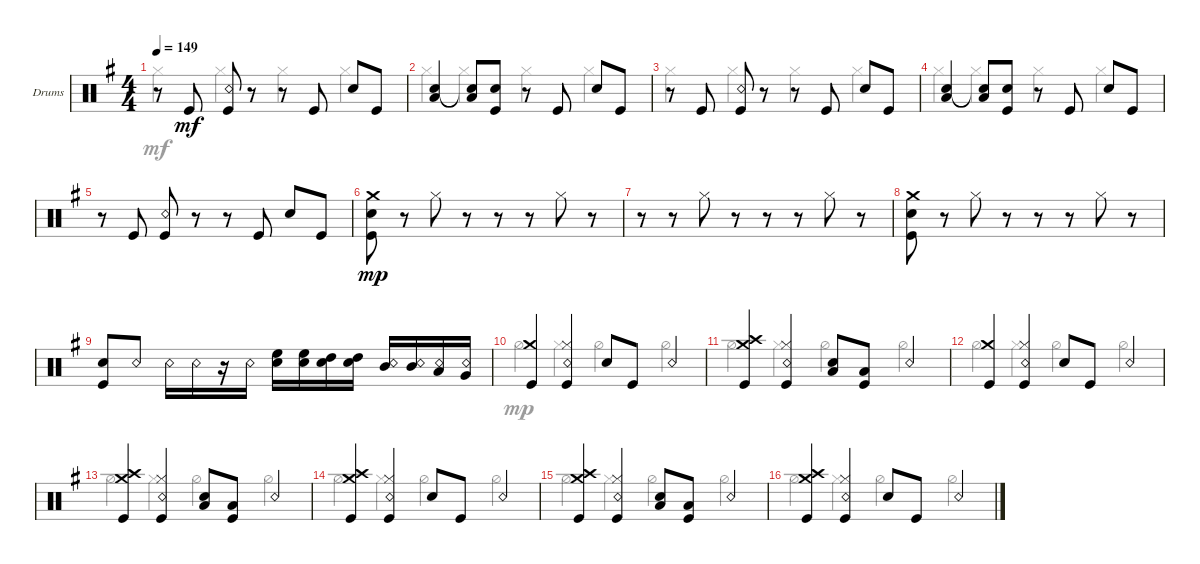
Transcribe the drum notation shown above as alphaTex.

\defaultSystemsLayout 4
\bracketExtendMode groupsimilarinstruments
\firstSystemTrackNameOrientation horizontal
\otherSystemsTrackNameOrientation horizontal
\track ("Drumkit" "Drums") {instrument percussion}
\staff {score}
\articulation defaults
\voice
\ts (4 4)
\tempo 149
\clef neutral
\ks eminor
r.8{dy mf} "Kick (hit)".8 ("Kick (hit)" "Snare (rim shot)").8 r.8 r.8 "Kick (hit)".8 "Snare (hit) 2".8 "Kick (hit)".8 |
("Snare (hit) 2" "Low Tom (hit)").4 ("Low Tom (hit)"{t} "Snare (hit) 2"{t}).8 ("Snare (hit) 2" "Kick (hit)").8 r.8 "Kick (hit)".8 "Snare (hit) 2".8 "Kick (hit)".8 |
r.8 "Kick (hit)".8 ("Kick (hit)" "Snare (rim shot)").8 r.8 r.8 "Kick (hit)".8 "Snare (hit) 2".8 "Kick (hit)".8 |
("Snare (hit) 2" "Low Tom (hit)").4 ("Low Tom (hit)"{t} "Snare (hit) 2"{t}).8 ("Snare (hit) 2" "Kick (hit)").8 r.8 "Kick (hit)".8 "Snare (hit) 2".8 "Kick (hit)".8 |
r.8 "Kick (hit)".8 ("Kick (hit)" "Snare (rim shot)").8 r.8 r.8 "Kick (hit)".8 "Snare (hit) 2".8 "Kick (hit)".8 |
("Kick (hit)" "Snare (hit) 2" "Crash medium (hit)").8{dy mp} r.8 "Hi-Hat (closed)".8 r.8 r.8 r.8 "Hi-Hat (closed)".8 r.8 |
r.8 r.8 "Hi-Hat (closed)".8 r.8 r.8 r.8 "Hi-Hat (closed)".8 r.8 |
("Kick (hit)" "Snare (hit) 2" "Crash medium (hit)").8 r.8 "Hi-Hat (closed)".8 r.8 r.8 r.8 "Hi-Hat (closed)".8 r.8 |
("Kick (hit)" "Snare (hit) 2").8 "Snare (rim shot)".8 "Snare (rim shot)".16 "Snare (rim shot)".16 r.16 "Snare (rim shot)".16 ("Snare (hit) 2" "High Floor Tom (hit)").16 ("Snare (hit) 2" "High Floor Tom (hit)").16 ("Snare (hit) 2" "High Tom (hit)").16 ("Snare (hit) 2" "High Tom (hit)").16 ("Snare (rim shot)" "Mid Tom (hit)").16 ("Snare (rim shot)" "Mid Tom (hit)").16 ("Snare (rim shot)" "Low Tom (hit)").16 ("Snare (rim shot)" "Very Low Tom (hit)").16 |
("Kick (hit)" "Crash medium (hit)").4 ("Snare (rim shot)" "Hi-Hat (closed)" "Kick (hit)").4 "Snare (hit) 2".8 "Kick (hit)".8 "Snare (rim shot)".4 |
("Kick (hit)" "Crash medium (hit)" "Crash high (hit)").4 ("Snare (rim shot)" "Hi-Hat (closed)" "Kick (hit)").4 ("Snare (hit) 2" "Low Tom (hit)").8 ("Kick (hit)" "Low Tom (hit)").8 "Snare (rim shot)".4 |
("Kick (hit)" "Crash medium (hit)").4 ("Snare (rim shot)" "Hi-Hat (closed)" "Kick (hit)").4 "Snare (hit) 2".8 "Kick (hit)".8 "Snare (rim shot)".4 |
("Kick (hit)" "Crash medium (hit)" "Crash high (hit)").4 ("Snare (rim shot)" "Hi-Hat (closed)" "Kick (hit)").4 ("Snare (hit) 2" "Low Tom (hit)").8 ("Kick (hit)" "Low Tom (hit)").8 "Snare (rim shot)".4 |
("Kick (hit)" "Crash medium (hit)" "Crash high (hit)").4 ("Snare (rim shot)" "Hi-Hat (closed)" "Kick (hit)").4 "Snare (hit) 2".8 "Kick (hit)".8 "Snare (rim shot)".4 |
("Kick (hit)" "Crash medium (hit)" "Crash high (hit)").4 ("Snare (rim shot)" "Hi-Hat (closed)" "Kick (hit)").4 ("Snare (hit) 2" "Low Tom (hit)").8 ("Kick (hit)" "Low Tom (hit)").8 "Snare (rim shot)".4 |
("Kick (hit)" "Crash medium (hit)" "Crash high (hit)").4 ("Snare (rim shot)" "Hi-Hat (closed)" "Kick (hit)").4 "Snare (hit) 2".8 "Kick (hit)".8 "Snare (rim shot)".4
\voice
\clef neutral
\ottava regular
\simile none
\ks eminor "Hi-Hat (closed)".4{dy mf} "Hi-Hat (closed)".4 "Hi-Hat (closed)".4 "Hi-Hat (closed)".4
|
"Hi-Hat (closed)".4 "Hi-Hat (closed)".4 "Hi-Hat (closed)".4 "Hi-Hat (closed)".4 |
"Hi-Hat (closed)".4 "Hi-Hat (closed)".4 "Hi-Hat (closed)".4 "Hi-Hat (closed)".4 |
"Hi-Hat (closed)".4 "Hi-Hat (closed)".4 "Hi-Hat (closed)".4 "Hi-Hat (closed)".4 |
|
|
|
|
|
"Hi-Hat (half)".4{dy mp} "Hi-Hat (closed)".4 "Hi-Hat (half)".4 "Hi-Hat (half)".4 |
"Hi-Hat (half)".4 "Hi-Hat (closed)".4 "Hi-Hat (half)".4 "Hi-Hat (half)".4 |
"Hi-Hat (half)".4 "Hi-Hat (closed)".4 "Hi-Hat (half)".4 "Hi-Hat (half)".4 |
"Hi-Hat (half)".4 "Hi-Hat (closed)".4 "Hi-Hat (half)".4 "Hi-Hat (half)".4 |
"Hi-Hat (half)".4 "Hi-Hat (closed)".4 "Hi-Hat (half)".4 "Hi-Hat (half)".4 |
"Hi-Hat (half)".4 "Hi-Hat (closed)".4 "Hi-Hat (half)".4 "Hi-Hat (half)".4 |
"Hi-Hat (half)".4 "Hi-Hat (closed)".4 "Hi-Hat (half)".4 "Hi-Hat (half)".4
